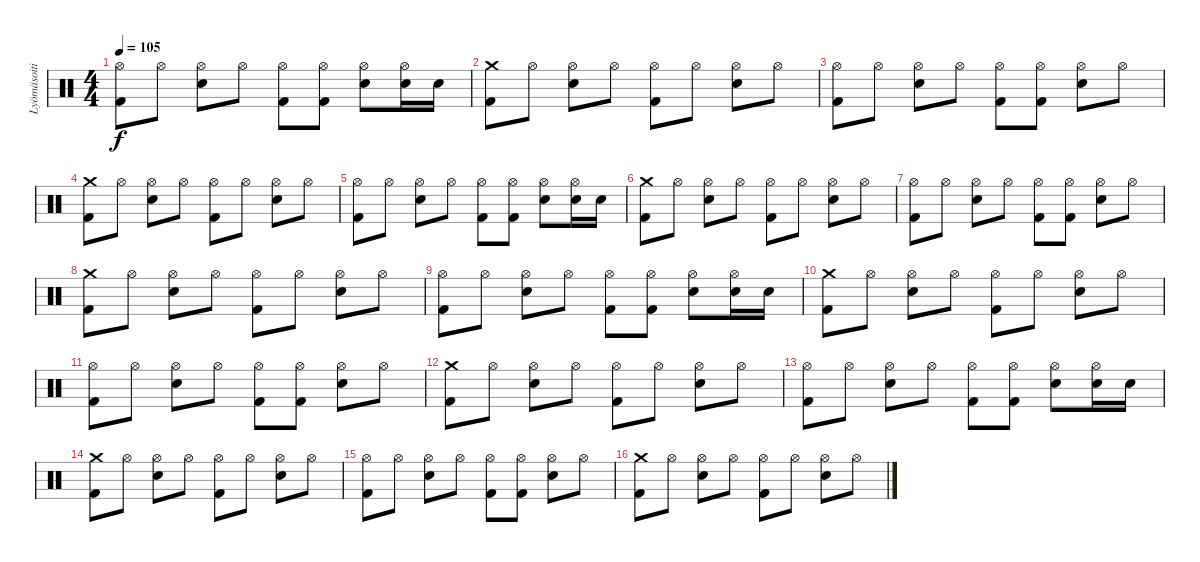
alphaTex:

\track ("Lyömäsoitin" "Lyömäsoiti") {instrument percussion}
\staff {score}
\articulation defaults
\ts (4 4)
\tempo 105
\clef neutral
\ks c
("Hi-Hat (open)" "Kick (hit) 2").8{dy f} "Hi-Hat (open)".8 ("Hi-Hat (open)" "Snare (hit) 2").8 "Hi-Hat (open)".8 ("Hi-Hat (open)" "Kick (hit) 2").8 ("Hi-Hat (open)" "Kick (hit) 2").8 ("Hi-Hat (open)" "Snare (hit) 2").8 ("Hi-Hat (open)" "Snare (hit) 2").16 "Snare (hit) 2".16 |
("Crash medium (hit)" "Kick (hit) 2").8 "Hi-Hat (open)".8 ("Hi-Hat (open)" "Snare (hit) 2").8 "Hi-Hat (open)".8 ("Hi-Hat (open)" "Kick (hit) 2").8 "Hi-Hat (open)".8 ("Hi-Hat (open)" "Snare (hit) 2").8 "Hi-Hat (open)".8 |
("Hi-Hat (open)" "Kick (hit) 2").8 "Hi-Hat (open)".8 ("Hi-Hat (open)" "Snare (hit) 2").8 "Hi-Hat (open)".8 ("Hi-Hat (open)" "Kick (hit) 2").8 ("Hi-Hat (open)" "Kick (hit) 2").8 ("Hi-Hat (open)" "Snare (hit) 2").8 "Hi-Hat (open)".8 |
("Crash medium (hit)" "Kick (hit) 2").8 "Hi-Hat (open)".8 ("Hi-Hat (open)" "Snare (hit) 2").8 "Hi-Hat (open)".8 ("Hi-Hat (open)" "Kick (hit) 2").8 "Hi-Hat (open)".8 ("Hi-Hat (open)" "Snare (hit) 2").8 "Hi-Hat (open)".8 |
("Hi-Hat (open)" "Kick (hit) 2").8 "Hi-Hat (open)".8 ("Hi-Hat (open)" "Snare (hit) 2").8 "Hi-Hat (open)".8 ("Hi-Hat (open)" "Kick (hit) 2").8 ("Hi-Hat (open)" "Kick (hit) 2").8 ("Hi-Hat (open)" "Snare (hit) 2").8 ("Hi-Hat (open)" "Snare (hit) 2").16 "Snare (hit) 2".16 |
("Crash medium (hit)" "Kick (hit) 2").8 "Hi-Hat (open)".8 ("Hi-Hat (open)" "Snare (hit) 2").8 "Hi-Hat (open)".8 ("Hi-Hat (open)" "Kick (hit) 2").8 "Hi-Hat (open)".8 ("Hi-Hat (open)" "Snare (hit) 2").8 "Hi-Hat (open)".8 |
("Hi-Hat (open)" "Kick (hit) 2").8 "Hi-Hat (open)".8 ("Hi-Hat (open)" "Snare (hit) 2").8 "Hi-Hat (open)".8 ("Hi-Hat (open)" "Kick (hit) 2").8 ("Hi-Hat (open)" "Kick (hit) 2").8 ("Hi-Hat (open)" "Snare (hit) 2").8 "Hi-Hat (open)".8 |
("Crash medium (hit)" "Kick (hit) 2").8 "Hi-Hat (open)".8 ("Hi-Hat (open)" "Snare (hit) 2").8 "Hi-Hat (open)".8 ("Hi-Hat (open)" "Kick (hit) 2").8 "Hi-Hat (open)".8 ("Hi-Hat (open)" "Snare (hit) 2").8 "Hi-Hat (open)".8 |
("Hi-Hat (open)" "Kick (hit) 2").8 "Hi-Hat (open)".8 ("Hi-Hat (open)" "Snare (hit) 2").8 "Hi-Hat (open)".8 ("Hi-Hat (open)" "Kick (hit) 2").8 ("Hi-Hat (open)" "Kick (hit) 2").8 ("Hi-Hat (open)" "Snare (hit) 2").8 ("Hi-Hat (open)" "Snare (hit) 2").16 "Snare (hit) 2".16 |
("Crash medium (hit)" "Kick (hit) 2").8 "Hi-Hat (open)".8 ("Hi-Hat (open)" "Snare (hit) 2").8 "Hi-Hat (open)".8 ("Hi-Hat (open)" "Kick (hit) 2").8 "Hi-Hat (open)".8 ("Hi-Hat (open)" "Snare (hit) 2").8 "Hi-Hat (open)".8 |
("Hi-Hat (open)" "Kick (hit) 2").8 "Hi-Hat (open)".8 ("Hi-Hat (open)" "Snare (hit) 2").8 "Hi-Hat (open)".8 ("Hi-Hat (open)" "Kick (hit) 2").8 ("Hi-Hat (open)" "Kick (hit) 2").8 ("Hi-Hat (open)" "Snare (hit) 2").8 "Hi-Hat (open)".8 |
("Crash medium (hit)" "Kick (hit) 2").8 "Hi-Hat (open)".8 ("Hi-Hat (open)" "Snare (hit) 2").8 "Hi-Hat (open)".8 ("Hi-Hat (open)" "Kick (hit) 2").8 "Hi-Hat (open)".8 ("Hi-Hat (open)" "Snare (hit) 2").8 "Hi-Hat (open)".8 |
("Hi-Hat (open)" "Kick (hit) 2").8 "Hi-Hat (open)".8 ("Hi-Hat (open)" "Snare (hit) 2").8 "Hi-Hat (open)".8 ("Hi-Hat (open)" "Kick (hit) 2").8 ("Hi-Hat (open)" "Kick (hit) 2").8 ("Hi-Hat (open)" "Snare (hit) 2").8 ("Hi-Hat (open)" "Snare (hit) 2").16 "Snare (hit) 2".16 |
("Crash medium (hit)" "Kick (hit) 2").8 "Hi-Hat (open)".8 ("Hi-Hat (open)" "Snare (hit) 2").8 "Hi-Hat (open)".8 ("Hi-Hat (open)" "Kick (hit) 2").8 "Hi-Hat (open)".8 ("Hi-Hat (open)" "Snare (hit) 2").8 "Hi-Hat (open)".8 |
("Hi-Hat (open)" "Kick (hit) 2").8 "Hi-Hat (open)".8 ("Hi-Hat (open)" "Snare (hit) 2").8 "Hi-Hat (open)".8 ("Hi-Hat (open)" "Kick (hit) 2").8 ("Hi-Hat (open)" "Kick (hit) 2").8 ("Hi-Hat (open)" "Snare (hit) 2").8 "Hi-Hat (open)".8 |
("Crash medium (hit)" "Kick (hit) 2").8 "Hi-Hat (open)".8 ("Hi-Hat (open)" "Snare (hit) 2").8 "Hi-Hat (open)".8 ("Hi-Hat (open)" "Kick (hit) 2").8 "Hi-Hat (open)".8 ("Hi-Hat (open)" "Snare (hit) 2").8 "Hi-Hat (open)".8
